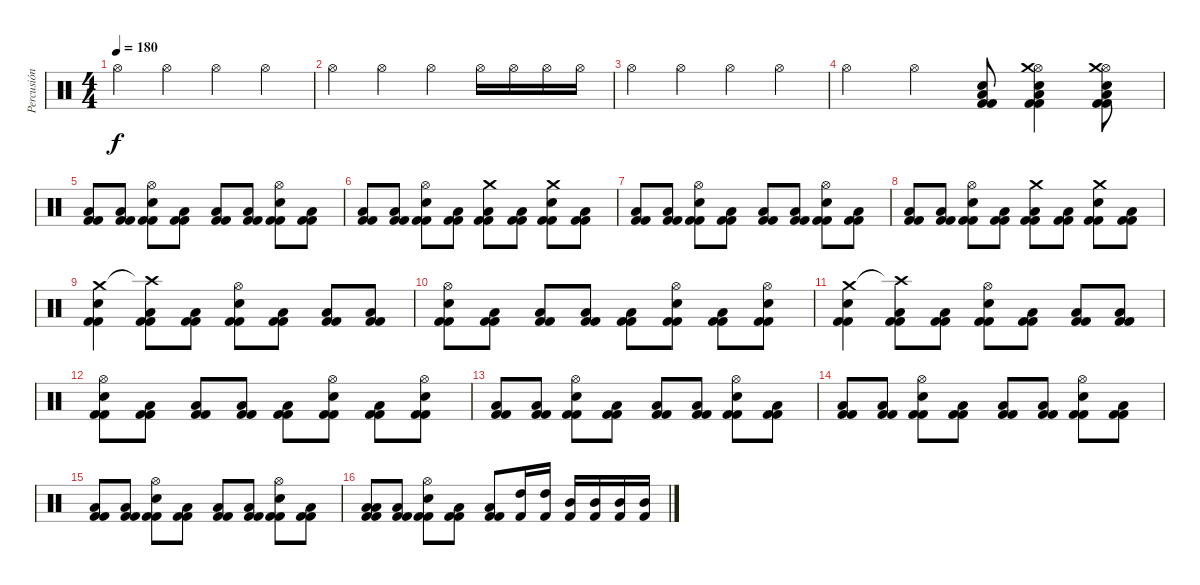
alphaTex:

\track ("Percusión" "Percusión") {instrument percussion}
\staff {score}
\articulation defaults
\ts (4 4)
\tempo 180
\clef neutral
\ks c "Hi-Hat (open)".4{dy f} "Hi-Hat (open)".4 "Hi-Hat (open)".4 "Hi-Hat (open)".4
|
"Hi-Hat (open)".4 "Hi-Hat (open)".4 "Hi-Hat (open)".4 "Hi-Hat (open)".16 "Hi-Hat (open)".16 "Hi-Hat (open)".16 "Hi-Hat (open)".16 |
"Hi-Hat (open)".4 "Hi-Hat (open)".4 "Hi-Hat (open)".4 "Hi-Hat (open)".4 |
"Hi-Hat (open)".4 "Hi-Hat (open)".4 ("Kick (hit) 2" "Kick (hit) 2" "Low Floor Tom (hit)" "Snare (hit) 2").8 ("Hi-Hat (open)" "Crash medium (hit)" "Kick (hit) 2" "Kick (hit) 2" "Low Floor Tom (hit)" "Snare (hit) 2").4 ("Hi-Hat (open)" "Crash medium (hit)" "Kick (hit) 2" "Kick (hit) 2" "Low Floor Tom (hit)" "Snare (hit) 2").8 |
("Kick (hit) 2" "Kick (hit) 2" "Low Floor Tom (hit)").8 ("Kick (hit) 2" "Kick (hit) 2" "Low Floor Tom (hit)").8 ("Hi-Hat (open)" "Kick (hit) 2" "Kick (hit) 2" "Snare (hit) 2").8 ("Kick (hit) 2" "Kick (hit) 2" "Low Floor Tom (hit)").8 ("Kick (hit) 2" "Kick (hit) 2" "Low Floor Tom (hit)").8 ("Kick (hit) 2" "Kick (hit) 2" "Low Floor Tom (hit)").8 ("Hi-Hat (open)" "Kick (hit) 2" "Kick (hit) 2" "Snare (hit) 2").8 ("Kick (hit) 2" "Kick (hit) 2" "Low Floor Tom (hit)").8 |
("Kick (hit) 2" "Kick (hit) 2" "Low Floor Tom (hit)").8 ("Kick (hit) 2" "Kick (hit) 2" "Low Floor Tom (hit)").8 ("Hi-Hat (open)" "Kick (hit) 2" "Kick (hit) 2" "Snare (hit) 2").8 ("Kick (hit) 2" "Kick (hit) 2" "Low Floor Tom (hit)").8 ("Crash medium (hit)" "Kick (hit) 2" "Kick (hit) 2" "Low Floor Tom (hit)").8 ("Kick (hit) 2" "Kick (hit) 2" "Low Floor Tom (hit)").8 ("Crash medium (hit)" "Kick (hit) 2" "Kick (hit) 2" "Snare (hit) 2").8 ("Kick (hit) 2" "Kick (hit) 2" "Low Floor Tom (hit)").8 |
("Kick (hit) 2" "Kick (hit) 2" "Low Floor Tom (hit)").8 ("Kick (hit) 2" "Kick (hit) 2" "Low Floor Tom (hit)").8 ("Hi-Hat (open)" "Kick (hit) 2" "Kick (hit) 2" "Snare (hit) 2").8 ("Kick (hit) 2" "Kick (hit) 2" "Low Floor Tom (hit)").8 ("Kick (hit) 2" "Kick (hit) 2" "Low Floor Tom (hit)").8 ("Kick (hit) 2" "Kick (hit) 2" "Low Floor Tom (hit)").8 ("Hi-Hat (open)" "Kick (hit) 2" "Kick (hit) 2" "Snare (hit) 2").8 ("Kick (hit) 2" "Kick (hit) 2" "Low Floor Tom (hit)").8 |
("Kick (hit) 2" "Kick (hit) 2" "Low Floor Tom (hit)").8 ("Kick (hit) 2" "Kick (hit) 2" "Low Floor Tom (hit)").8 ("Hi-Hat (open)" "Kick (hit) 2" "Kick (hit) 2" "Snare (hit) 2").8 ("Kick (hit) 2" "Kick (hit) 2" "Low Floor Tom (hit)").8 ("Crash medium (hit)" "Kick (hit) 2" "Kick (hit) 2" "Low Floor Tom (hit)").8 ("Kick (hit) 2" "Kick (hit) 2" "Low Floor Tom (hit)").8 ("Crash medium (hit)" "Kick (hit) 2" "Kick (hit) 2" "Snare (hit) 2").8 ("Kick (hit) 2" "Kick (hit) 2" "Low Floor Tom (hit)").8 |
("Crash medium (hit)" "Kick (hit) 2" "Kick (hit) 2" "Snare (hit) 2").4 ("Crash high (hit)"{t} "Kick (hit) 2" "Kick (hit) 2" "Low Floor Tom (hit)").8 ("Kick (hit) 2" "Kick (hit) 2" "Low Floor Tom (hit)").8 ("Hi-Hat (open)" "Kick (hit) 2" "Kick (hit) 2" "Snare (hit) 2").8 ("Kick (hit) 2" "Kick (hit) 2" "Low Floor Tom (hit)").8 ("Kick (hit) 2" "Kick (hit) 2" "Low Floor Tom (hit)").8 ("Kick (hit) 2" "Kick (hit) 2" "Low Floor Tom (hit)").8 |
("Hi-Hat (open)" "Kick (hit) 2" "Kick (hit) 2" "Snare (hit) 2").8 ("Kick (hit) 2" "Kick (hit) 2" "Low Floor Tom (hit)").8 ("Kick (hit) 2" "Kick (hit) 2" "Low Floor Tom (hit)").8 ("Kick (hit) 2" "Kick (hit) 2" "Low Floor Tom (hit)").8 ("Kick (hit) 2" "Kick (hit) 2" "Low Floor Tom (hit)").8 ("Hi-Hat (open)" "Kick (hit) 2" "Kick (hit) 2" "Snare (hit) 2").8 ("Kick (hit) 2" "Kick (hit) 2" "Low Floor Tom (hit)").8 ("Hi-Hat (open)" "Kick (hit) 2" "Kick (hit) 2" "Snare (hit) 2").8 |
("Crash medium (hit)" "Kick (hit) 2" "Kick (hit) 2" "Snare (hit) 2").4 ("Crash high (hit)"{t} "Kick (hit) 2" "Kick (hit) 2" "Low Floor Tom (hit)").8 ("Kick (hit) 2" "Kick (hit) 2" "Low Floor Tom (hit)").8 ("Hi-Hat (open)" "Kick (hit) 2" "Kick (hit) 2" "Snare (hit) 2").8 ("Kick (hit) 2" "Kick (hit) 2" "Low Floor Tom (hit)").8 ("Kick (hit) 2" "Kick (hit) 2" "Low Floor Tom (hit)").8 ("Kick (hit) 2" "Kick (hit) 2" "Low Floor Tom (hit)").8 |
("Hi-Hat (open)" "Kick (hit) 2" "Kick (hit) 2" "Snare (hit) 2").8 ("Kick (hit) 2" "Kick (hit) 2" "Low Floor Tom (hit)").8 ("Kick (hit) 2" "Kick (hit) 2" "Low Floor Tom (hit)").8 ("Kick (hit) 2" "Kick (hit) 2" "Low Floor Tom (hit)").8 ("Kick (hit) 2" "Kick (hit) 2" "Low Floor Tom (hit)").8 ("Hi-Hat (open)" "Kick (hit) 2" "Kick (hit) 2" "Snare (hit) 2").8 ("Kick (hit) 2" "Kick (hit) 2" "Low Floor Tom (hit)").8 ("Hi-Hat (open)" "Kick (hit) 2" "Kick (hit) 2" "Snare (hit) 2").8 |
("Kick (hit) 2" "Kick (hit) 2" "Low Floor Tom (hit)").8 ("Kick (hit) 2" "Kick (hit) 2" "Low Floor Tom (hit)").8 ("Hi-Hat (open)" "Kick (hit) 2" "Kick (hit) 2" "Snare (hit) 2").8 ("Kick (hit) 2" "Kick (hit) 2" "Low Floor Tom (hit)").8 ("Kick (hit) 2" "Kick (hit) 2" "Low Floor Tom (hit)").8 ("Kick (hit) 2" "Kick (hit) 2" "Low Floor Tom (hit)").8 ("Hi-Hat (open)" "Kick (hit) 2" "Kick (hit) 2" "Snare (hit) 2").8 ("Kick (hit) 2" "Kick (hit) 2" "Low Floor Tom (hit)").8 |
("Kick (hit) 2" "Kick (hit) 2" "Low Floor Tom (hit)").8 ("Kick (hit) 2" "Kick (hit) 2" "Low Floor Tom (hit)").8 ("Hi-Hat (open)" "Kick (hit) 2" "Kick (hit) 2" "Snare (hit) 2").8 ("Kick (hit) 2" "Kick (hit) 2" "Low Floor Tom (hit)").8 ("Kick (hit) 2" "Kick (hit) 2" "Low Floor Tom (hit)").8 ("Kick (hit) 2" "Kick (hit) 2" "Low Floor Tom (hit)").8 ("Hi-Hat (open)" "Kick (hit) 2" "Kick (hit) 2" "Snare (hit) 2").8 ("Kick (hit) 2" "Kick (hit) 2" "Low Floor Tom (hit)").8 |
("Kick (hit) 2" "Kick (hit) 2" "Low Floor Tom (hit)").8 ("Kick (hit) 2" "Kick (hit) 2" "Low Floor Tom (hit)").8 ("Hi-Hat (open)" "Kick (hit) 2" "Kick (hit) 2" "Snare (hit) 2").8 ("Kick (hit) 2" "Kick (hit) 2" "Low Floor Tom (hit)").8 ("Kick (hit) 2" "Kick (hit) 2" "Low Floor Tom (hit)").8 ("Kick (hit) 2" "Kick (hit) 2" "Low Floor Tom (hit)").8 ("Hi-Hat (open)" "Kick (hit) 2" "Kick (hit) 2" "Snare (hit) 2").8 ("Kick (hit) 2" "Kick (hit) 2" "Low Floor Tom (hit)").8 |
("Low Floor Tom (hit)" "Kick (hit) 2" "Kick (hit) 2" "Low Floor Tom (hit)").8 ("Kick (hit) 2" "Kick (hit) 2" "Low Floor Tom (hit)").8 ("Hi-Hat (open)" "Kick (hit) 2" "Kick (hit) 2" "Snare (hit) 2").8 ("Kick (hit) 2" "Kick (hit) 2" "Low Floor Tom (hit)").8 ("Kick (hit) 2" "Kick (hit) 2" "Low Floor Tom (hit)").8 ("Kick (hit) 2" "High Tom (hit)").16 ("Kick (hit) 2" "High Tom (hit)").16 ("Kick (hit) 2" "Mid Tom (hit)").16 ("Kick (hit) 2" "Mid Tom (hit)").16 ("Kick (hit) 2" "Mid Tom (hit)").16 ("Kick (hit) 2" "Mid Tom (hit)").16
